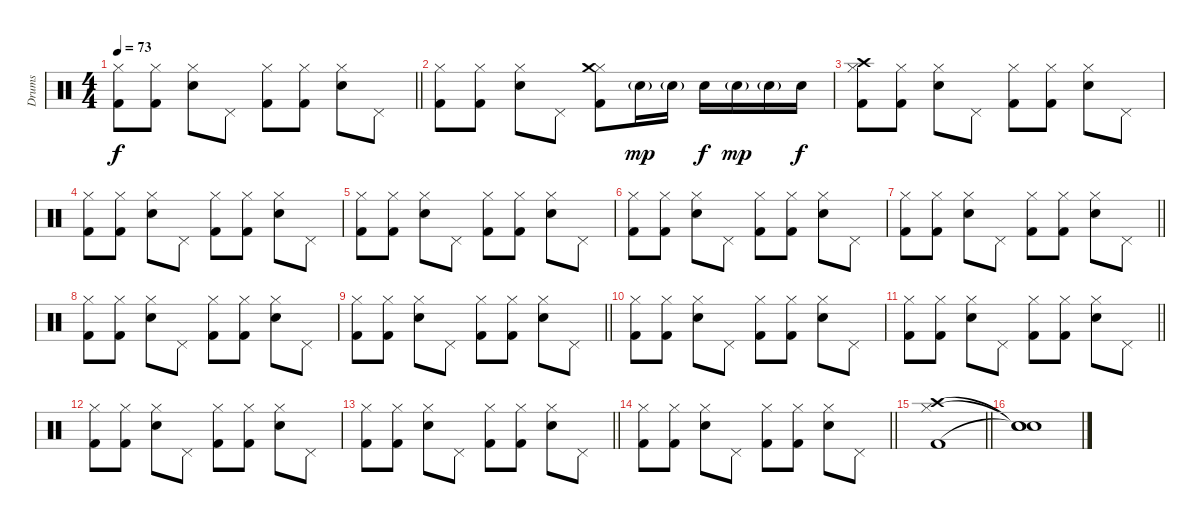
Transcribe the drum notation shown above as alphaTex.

\track ("Drums" "Drums") {instrument percussion}
\staff {score}
\articulation defaults
\ts (4 4)
\tempo 73
\clef neutral
\barLineRight lightlight
\ks c
("Hi-Hat (closed)" "Kick (hit) 2").8{dy f} ("Hi-Hat (closed)" "Kick (hit) 2").8 ("Hi-Hat (closed)" "Snare (hit) 2").8 "Pedal Hi-Hat (hit)".8 ("Hi-Hat (closed)" "Kick (hit) 2").8 ("Hi-Hat (closed)" "Kick (hit) 2").8 ("Hi-Hat (closed)" "Snare (hit) 2").8 "Pedal Hi-Hat (hit)".8 |
("Hi-Hat (closed)" "Kick (hit) 2").8 ("Hi-Hat (closed)" "Kick (hit) 2").8 ("Hi-Hat (closed)" "Snare (hit) 2").8 "Pedal Hi-Hat (hit)".8 ("Hi-Hat (closed)" "Kick (hit) 2" "Crash medium (hit)").8 "Snare (hit) 2"{g}.16{dy mp} "Snare (hit) 2"{g}.16 "Snare (hit) 2".16{dy f} "Snare (hit) 2"{g}.16{dy mp} "Snare (hit) 2"{g}.16 "Snare (hit) 2".16{dy f} |
("Hi-Hat (closed)" "Kick (hit) 2" "Crash high (hit)").8 ("Hi-Hat (closed)" "Kick (hit) 2").8 ("Hi-Hat (closed)" "Snare (hit) 2").8 "Pedal Hi-Hat (hit)".8 ("Hi-Hat (closed)" "Kick (hit) 2").8 ("Hi-Hat (closed)" "Kick (hit) 2").8 ("Hi-Hat (closed)" "Snare (hit) 2").8 "Pedal Hi-Hat (hit)".8 |
("Hi-Hat (closed)" "Kick (hit) 2").8 ("Hi-Hat (closed)" "Kick (hit) 2").8 ("Hi-Hat (closed)" "Snare (hit) 2").8 "Pedal Hi-Hat (hit)".8 ("Hi-Hat (closed)" "Kick (hit) 2").8 ("Hi-Hat (closed)" "Kick (hit) 2").8 ("Hi-Hat (closed)" "Snare (hit) 2").8 "Pedal Hi-Hat (hit)".8 |
("Hi-Hat (closed)" "Kick (hit) 2").8 ("Hi-Hat (closed)" "Kick (hit) 2").8 ("Hi-Hat (closed)" "Snare (hit) 2").8 "Pedal Hi-Hat (hit)".8 ("Hi-Hat (closed)" "Kick (hit) 2").8 ("Hi-Hat (closed)" "Kick (hit) 2").8 ("Hi-Hat (closed)" "Snare (hit) 2").8 "Pedal Hi-Hat (hit)".8 |
("Hi-Hat (closed)" "Kick (hit) 2").8 ("Hi-Hat (closed)" "Kick (hit) 2").8 ("Hi-Hat (closed)" "Snare (hit) 2").8 "Pedal Hi-Hat (hit)".8 ("Hi-Hat (closed)" "Kick (hit) 2").8 ("Hi-Hat (closed)" "Kick (hit) 2").8 ("Hi-Hat (closed)" "Snare (hit) 2").8 "Pedal Hi-Hat (hit)".8 |
\barLineRight lightlight
("Hi-Hat (closed)" "Kick (hit) 2").8 ("Hi-Hat (closed)" "Kick (hit) 2").8 ("Hi-Hat (closed)" "Snare (hit) 2").8 "Pedal Hi-Hat (hit)".8 ("Hi-Hat (closed)" "Kick (hit) 2").8 ("Hi-Hat (closed)" "Kick (hit) 2").8 ("Hi-Hat (closed)" "Snare (hit) 2").8 "Pedal Hi-Hat (hit)".8 |
("Hi-Hat (closed)" "Kick (hit) 2").8 ("Hi-Hat (closed)" "Kick (hit) 2").8 ("Hi-Hat (closed)" "Snare (hit) 2").8 "Pedal Hi-Hat (hit)".8 ("Hi-Hat (closed)" "Kick (hit) 2").8 ("Hi-Hat (closed)" "Kick (hit) 2").8 ("Hi-Hat (closed)" "Snare (hit) 2").8 "Pedal Hi-Hat (hit)".8 |
\barLineRight lightlight
("Hi-Hat (closed)" "Kick (hit) 2").8 ("Hi-Hat (closed)" "Kick (hit) 2").8 ("Hi-Hat (closed)" "Snare (hit) 2").8 "Pedal Hi-Hat (hit)".8 ("Hi-Hat (closed)" "Kick (hit) 2").8 ("Hi-Hat (closed)" "Kick (hit) 2").8 ("Hi-Hat (closed)" "Snare (hit) 2").8 "Pedal Hi-Hat (hit)".8 |
("Hi-Hat (closed)" "Kick (hit) 2").8 ("Hi-Hat (closed)" "Kick (hit) 2").8 ("Hi-Hat (closed)" "Snare (hit) 2").8 "Pedal Hi-Hat (hit)".8 ("Hi-Hat (closed)" "Kick (hit) 2").8 ("Hi-Hat (closed)" "Kick (hit) 2").8 ("Hi-Hat (closed)" "Snare (hit) 2").8 "Pedal Hi-Hat (hit)".8 |
\barLineRight lightlight
("Hi-Hat (closed)" "Kick (hit) 2").8 ("Hi-Hat (closed)" "Kick (hit) 2").8 ("Hi-Hat (closed)" "Snare (hit) 2").8 "Pedal Hi-Hat (hit)".8 ("Hi-Hat (closed)" "Kick (hit) 2").8 ("Hi-Hat (closed)" "Kick (hit) 2").8 ("Hi-Hat (closed)" "Snare (hit) 2").8 "Pedal Hi-Hat (hit)".8 |
("Hi-Hat (closed)" "Kick (hit) 2").8 ("Hi-Hat (closed)" "Kick (hit) 2").8 ("Hi-Hat (closed)" "Snare (hit) 2").8 "Pedal Hi-Hat (hit)".8 ("Hi-Hat (closed)" "Kick (hit) 2").8 ("Hi-Hat (closed)" "Kick (hit) 2").8 ("Hi-Hat (closed)" "Snare (hit) 2").8 "Pedal Hi-Hat (hit)".8 |
\barLineRight lightlight
("Hi-Hat (closed)" "Kick (hit) 2").8 ("Hi-Hat (closed)" "Kick (hit) 2").8 ("Hi-Hat (closed)" "Snare (hit) 2").8 "Pedal Hi-Hat (hit)".8 ("Hi-Hat (closed)" "Kick (hit) 2").8 ("Hi-Hat (closed)" "Kick (hit) 2").8 ("Hi-Hat (closed)" "Snare (hit) 2").8 "Pedal Hi-Hat (hit)".8 |
\barLineRight lightlight
("Hi-Hat (closed)" "Kick (hit) 2").8 ("Hi-Hat (closed)" "Kick (hit) 2").8 ("Hi-Hat (closed)" "Snare (hit) 2").8 "Pedal Hi-Hat (hit)".8 ("Hi-Hat (closed)" "Kick (hit) 2").8 ("Hi-Hat (closed)" "Kick (hit) 2").8 ("Hi-Hat (closed)" "Snare (hit) 2").8 "Pedal Hi-Hat (hit)".8 |
\barLineRight lightlight
("Hi-Hat (closed)" "Kick (hit) 2" "Crash high (hit)").1 |
("Snare (hit)"{t} "Snare (hit)"{t} "Snare (hit)"{t}).1
